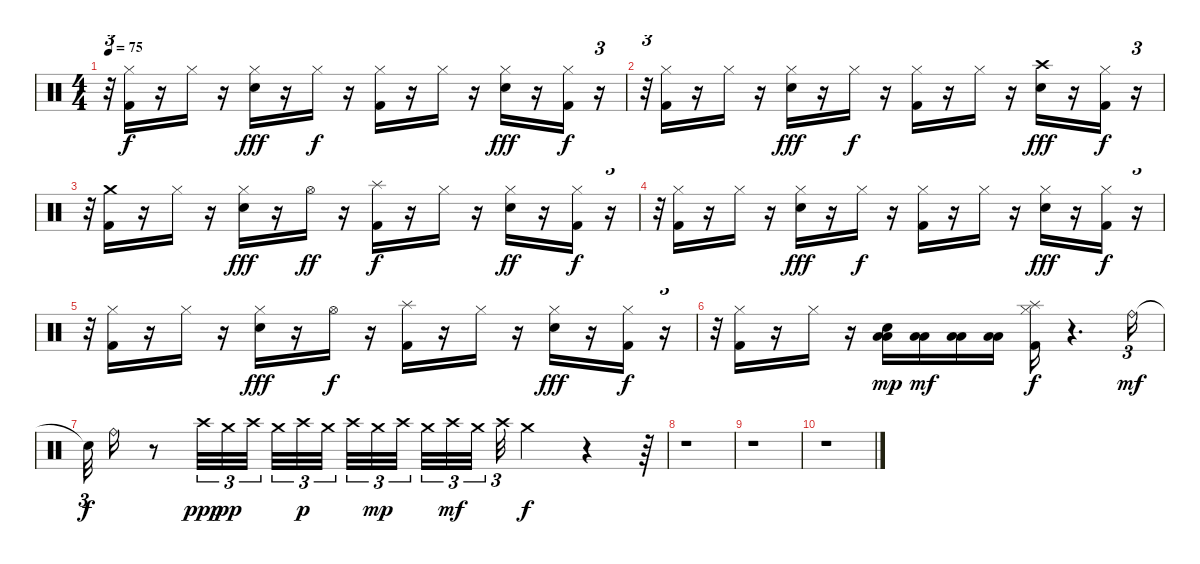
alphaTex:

\track "" {instrument percussion}
\staff {score}
\articulation defaults
\ts (4 4)
\tempo 75
\clef neutral
\ks c
r.32{tu (3 2) dy f} ("Hi-Hat (closed)" "Kick (hit) 2").16 r.16 "Hi-Hat (closed)".16 r.16 ("Electric Snare (hit)" "Hi-Hat (closed)").16{dy fff} r.16 "Hi-Hat (closed)".16{dy f} r.16 ("Kick (hit) 2" "Hi-Hat (closed)").16 r.16 "Hi-Hat (closed)".16 r.16 ("Electric Snare (hit)" "Hi-Hat (closed)").16{dy fff} r.16 ("Hi-Hat (closed)" "Kick (hit) 2").16{dy f} r.16{tu (3 2)} |
r.32{tu (3 2)} ("Kick (hit) 2" "Hi-Hat (closed)").16 r.16 "Hi-Hat (closed)".16 r.16 ("Hi-Hat (closed)" "Electric Snare (hit)").16{dy fff} r.16 "Hi-Hat (closed)".16{dy f} r.16 ("Kick (hit) 2" "Hi-Hat (closed)").16 r.16 "Hi-Hat (closed)".16 r.16 ("Crash high (hit)" "Electric Snare (hit)").16{dy fff} r.16 ("Hi-Hat (closed)" "Kick (hit) 2").16{dy f} r.16{tu (3 2)} |
r.32{tu (3 2)} ("Crash medium (hit)" "Kick (hit) 2").16 r.16 "Hi-Hat (closed)".16 r.16 ("Electric Snare (hit)" "Hi-Hat (closed)").16{dy fff} r.16 "Hi-Hat (open)".16{dy ff} r.16 ("Kick (hit) 2" "Splash (hit)").16{dy f} r.16 "Hi-Hat (closed)".16 r.16 ("Electric Snare (hit)" "Hi-Hat (closed)").16{dy ff} r.16 ("Hi-Hat (closed)" "Kick (hit) 2").16{dy f} r.16{tu (3 2)} |
r.32{tu (3 2)} ("Hi-Hat (closed)" "Kick (hit) 2").16 r.16 "Hi-Hat (closed)".16 r.16 ("Hi-Hat (closed)" "Electric Snare (hit)").16{dy fff} r.16 "Hi-Hat (closed)".16{dy f} r.16 ("Kick (hit) 2" "Hi-Hat (closed)").16 r.16 "Hi-Hat (closed)".16 r.16 ("Hi-Hat (closed)" "Electric Snare (hit)").16{dy fff} r.16 ("Kick (hit) 2" "Hi-Hat (closed)").16{dy f} r.16{tu (3 2)} |
r.32{tu (3 2)} ("Hi-Hat (closed)" "Kick (hit) 2").16 r.16 "Hi-Hat (closed)".16 r.16 ("Electric Snare (hit)" "Hi-Hat (closed)").16{dy fff} r.16 "Hi-Hat (open)".16{dy f} r.16 ("Splash (hit)" "Kick (hit) 2").16 r.16 "Hi-Hat (closed)".16 r.16 ("Electric Snare (hit)" "Hi-Hat (closed)").16{dy fff} r.16 ("Hi-Hat (closed)" "Kick (hit) 2").16{dy f} r.16{tu (3 2)} |
r.32{tu (3 2)} ("Kick (hit) 2" "Hi-Hat (closed)").16 r.16 "Hi-Hat (closed)".16 r.16 ("Electric Snare (hit)" "Low Floor Tom (hit)" "Low Floor Tom (hit)").16{dy mp} ("Low Floor Tom (hit)" "Low Floor Tom (hit)").16{dy mf} ("Low Floor Tom (hit)" "Low Floor Tom (hit)").16 ("Low Floor Tom (hit)" "Low Floor Tom (hit)").16 ("Kick (hit) 2" "Hi-Hat (closed)" "Splash (hit)").16{dy f} r.4{d} "Ride (bell)".16{tu (3 2) dy mf} |
"Snare (hit)"{t}.32{tu (3 2) dy f} "Ride (bell)".16 r.8 "Crash high (hit)".32{tu (3 2) dy ppp} "Crash medium (hit)".32{tu (3 2) dy pp} "Crash high (hit)".32{tu (3 2) beam splitsecondary} "Crash medium (hit)".32{tu (3 2)} "Crash high (hit)".32{tu (3 2) dy p} "Crash medium (hit)".32{tu (3 2) beam splitsecondary} "Crash high (hit)".32{tu (3 2)} "Crash medium (hit)".32{tu (3 2) dy mp} "Crash high (hit)".32{tu (3 2) beam splitsecondary} "Crash medium (hit)".32{tu (3 2)} "Crash high (hit)".32{tu (3 2) dy mf} "Crash medium (hit)".32{tu (3 2) beam splitsecondary} "Crash high (hit)".32{tu (3 2)} "Crash medium (hit)".4{dy f} r.4 r.64 |
r.1 |
r.1 |
r.1
